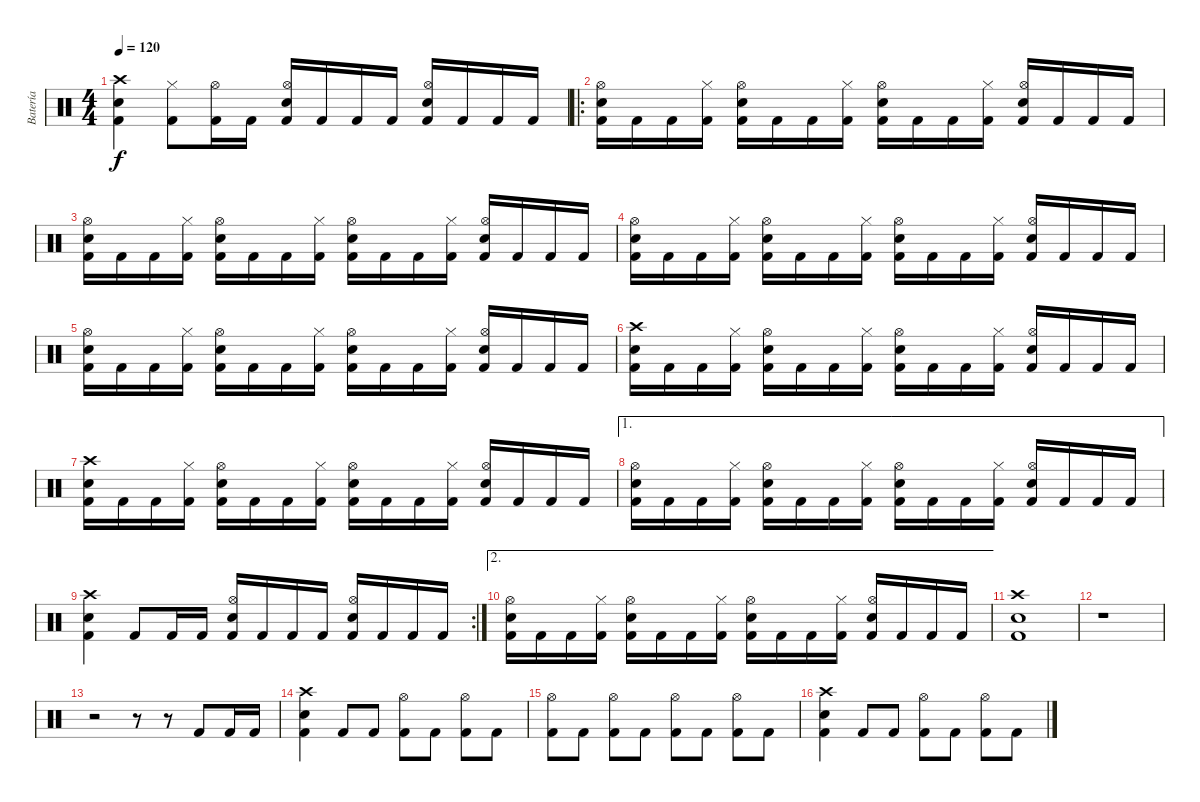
\track ("Batería" "Batería") {instrument percussion}
\staff {score}
\articulation defaults
\ts (4 4)
\tempo 120
\clef neutral
\ks c
("Crash high (hit)" "Snare (hit) 2" "Kick (hit) 2").4{dy f} ("Hi-Hat (closed)" "Kick (hit) 2").8 ("Hi-Hat (open)" "Kick (hit) 2").16 "Kick (hit) 2".16 ("Hi-Hat (open)" "Electric Snare (hit)" "Kick (hit) 2").16 "Kick (hit) 2".16 "Kick (hit) 2".16 "Kick (hit) 2".16 ("Hi-Hat (open)" "Electric Snare (hit)" "Kick (hit) 2").16 "Kick (hit) 2".16 "Kick (hit) 2".16 "Kick (hit) 2".16 |
\ro
("Hi-Hat (open)" "Electric Snare (hit)" "Kick (hit) 2").16 "Kick (hit) 2".16 "Kick (hit) 2".16 ("Hi-Hat (closed)" "Kick (hit) 2").16 ("Hi-Hat (open)" "Electric Snare (hit)" "Kick (hit) 2").16 "Kick (hit) 2".16 "Kick (hit) 2".16 ("Hi-Hat (closed)" "Kick (hit) 2").16 ("Hi-Hat (open)" "Electric Snare (hit)" "Kick (hit) 2").16 "Kick (hit) 2".16 "Kick (hit) 2".16 ("Hi-Hat (closed)" "Kick (hit) 2").16 ("Hi-Hat (open)" "Electric Snare (hit)" "Kick (hit) 2").16 "Kick (hit) 2".16 "Kick (hit) 2".16 "Kick (hit) 2".16 |
("Hi-Hat (open)" "Electric Snare (hit)" "Kick (hit) 2").16 "Kick (hit) 2".16 "Kick (hit) 2".16 ("Hi-Hat (closed)" "Kick (hit) 2").16 ("Hi-Hat (open)" "Electric Snare (hit)" "Kick (hit) 2").16 "Kick (hit) 2".16 "Kick (hit) 2".16 ("Hi-Hat (closed)" "Kick (hit) 2").16 ("Hi-Hat (open)" "Electric Snare (hit)" "Kick (hit) 2").16 "Kick (hit) 2".16 "Kick (hit) 2".16 ("Hi-Hat (closed)" "Kick (hit) 2").16 ("Hi-Hat (open)" "Electric Snare (hit)" "Kick (hit) 2").16 "Kick (hit) 2".16 "Kick (hit) 2".16 "Kick (hit) 2".16 |
("Hi-Hat (open)" "Electric Snare (hit)" "Kick (hit) 2").16 "Kick (hit) 2".16 "Kick (hit) 2".16 ("Hi-Hat (closed)" "Kick (hit) 2").16 ("Hi-Hat (open)" "Electric Snare (hit)" "Kick (hit) 2").16 "Kick (hit) 2".16 "Kick (hit) 2".16 ("Hi-Hat (closed)" "Kick (hit) 2").16 ("Hi-Hat (open)" "Electric Snare (hit)" "Kick (hit) 2").16 "Kick (hit) 2".16 "Kick (hit) 2".16 ("Hi-Hat (closed)" "Kick (hit) 2").16 ("Hi-Hat (open)" "Electric Snare (hit)" "Kick (hit) 2").16 "Kick (hit) 2".16 "Kick (hit) 2".16 "Kick (hit) 2".16 |
("Hi-Hat (open)" "Electric Snare (hit)" "Kick (hit) 2").16 "Kick (hit) 2".16 "Kick (hit) 2".16 ("Hi-Hat (closed)" "Kick (hit) 2").16 ("Hi-Hat (open)" "Electric Snare (hit)" "Kick (hit) 2").16 "Kick (hit) 2".16 "Kick (hit) 2".16 ("Hi-Hat (closed)" "Kick (hit) 2").16 ("Hi-Hat (open)" "Electric Snare (hit)" "Kick (hit) 2").16 "Kick (hit) 2".16 "Kick (hit) 2".16 ("Hi-Hat (closed)" "Kick (hit) 2").16 ("Hi-Hat (open)" "Electric Snare (hit)" "Kick (hit) 2").16 "Kick (hit) 2".16 "Kick (hit) 2".16 "Kick (hit) 2".16 |
("Crash high (hit)" "Electric Snare (hit)" "Kick (hit) 2").16 "Kick (hit) 2".16 "Kick (hit) 2".16 ("Hi-Hat (closed)" "Kick (hit) 2").16 ("Hi-Hat (open)" "Electric Snare (hit)" "Kick (hit) 2").16 "Kick (hit) 2".16 "Kick (hit) 2".16 ("Hi-Hat (closed)" "Kick (hit) 2").16 ("Hi-Hat (open)" "Electric Snare (hit)" "Kick (hit) 2").16 "Kick (hit) 2".16 "Kick (hit) 2".16 ("Hi-Hat (closed)" "Kick (hit) 2").16 ("Hi-Hat (open)" "Electric Snare (hit)" "Kick (hit) 2").16 "Kick (hit) 2".16 "Kick (hit) 2".16 "Kick (hit) 2".16 |
("Crash high (hit)" "Electric Snare (hit)" "Kick (hit) 2").16 "Kick (hit) 2".16 "Kick (hit) 2".16 ("Hi-Hat (closed)" "Kick (hit) 2").16 ("Hi-Hat (open)" "Electric Snare (hit)" "Kick (hit) 2").16 "Kick (hit) 2".16 "Kick (hit) 2".16 ("Hi-Hat (closed)" "Kick (hit) 2").16 ("Hi-Hat (open)" "Electric Snare (hit)" "Kick (hit) 2").16 "Kick (hit) 2".16 "Kick (hit) 2".16 ("Hi-Hat (closed)" "Kick (hit) 2").16 ("Hi-Hat (open)" "Electric Snare (hit)" "Kick (hit) 2").16 "Kick (hit) 2".16 "Kick (hit) 2".16 "Kick (hit) 2".16 |
\ae 1
("Hi-Hat (open)" "Electric Snare (hit)" "Kick (hit) 2").16 "Kick (hit) 2".16 "Kick (hit) 2".16 ("Hi-Hat (closed)" "Kick (hit) 2").16 ("Hi-Hat (open)" "Electric Snare (hit)" "Kick (hit) 2").16 "Kick (hit) 2".16 "Kick (hit) 2".16 ("Hi-Hat (closed)" "Kick (hit) 2").16 ("Hi-Hat (open)" "Electric Snare (hit)" "Kick (hit) 2").16 "Kick (hit) 2".16 "Kick (hit) 2".16 ("Hi-Hat (closed)" "Kick (hit) 2").16 ("Hi-Hat (open)" "Electric Snare (hit)" "Kick (hit) 2").16 "Kick (hit) 2".16 "Kick (hit) 2".16 "Kick (hit) 2".16 |
\rc 2
("Crash high (hit)" "Snare (hit) 2" "Kick (hit) 2").4 "Kick (hit) 2".8 "Kick (hit) 2".16 "Kick (hit) 2".16 ("Hi-Hat (open)" "Electric Snare (hit)" "Kick (hit) 2").16 "Kick (hit) 2".16 "Kick (hit) 2".16 "Kick (hit) 2".16 ("Hi-Hat (open)" "Electric Snare (hit)" "Kick (hit) 2").16 "Kick (hit) 2".16 "Kick (hit) 2".16 "Kick (hit) 2".16 |
\ae 2
("Hi-Hat (open)" "Electric Snare (hit)" "Kick (hit) 2").16 "Kick (hit) 2".16 "Kick (hit) 2".16 ("Hi-Hat (closed)" "Kick (hit) 2").16 ("Hi-Hat (open)" "Electric Snare (hit)" "Kick (hit) 2").16 "Kick (hit) 2".16 "Kick (hit) 2".16 ("Hi-Hat (closed)" "Kick (hit) 2").16 ("Hi-Hat (open)" "Electric Snare (hit)" "Kick (hit) 2").16 "Kick (hit) 2".16 "Kick (hit) 2".16 ("Hi-Hat (closed)" "Kick (hit) 2").16 ("Hi-Hat (open)" "Electric Snare (hit)" "Kick (hit) 2").16 "Kick (hit) 2".16 "Kick (hit) 2".16 "Kick (hit) 2".16 |
("Crash high (hit)" "Snare (hit) 2" "Kick (hit) 2").1 |
r.1 |
r.2 r.8 r.8 "Kick (hit) 2".8 "Kick (hit) 2".16 "Kick (hit) 2".16 |
("Crash high (hit)" "Snare (hit) 2" "Kick (hit) 2").4 "Kick (hit) 2".8 "Kick (hit) 2".8 ("Hi-Hat (open)" "Kick (hit) 2").8 "Kick (hit) 2".8 ("Hi-Hat (open)" "Kick (hit) 2").8 "Kick (hit) 2".8 |
("Hi-Hat (open)" "Kick (hit) 2").8 "Kick (hit) 2".8 ("Hi-Hat (open)" "Kick (hit) 2").8 "Kick (hit) 2".8 ("Hi-Hat (open)" "Kick (hit) 2").8 "Kick (hit) 2".8 ("Hi-Hat (open)" "Kick (hit) 2").8 "Kick (hit) 2".8 |
("Crash high (hit)" "Snare (hit) 2" "Kick (hit) 2").4 "Kick (hit) 2".8 "Kick (hit) 2".8 ("Hi-Hat (open)" "Kick (hit) 2").8 "Kick (hit) 2".8 ("Hi-Hat (open)" "Kick (hit) 2").8 "Kick (hit) 2".8
